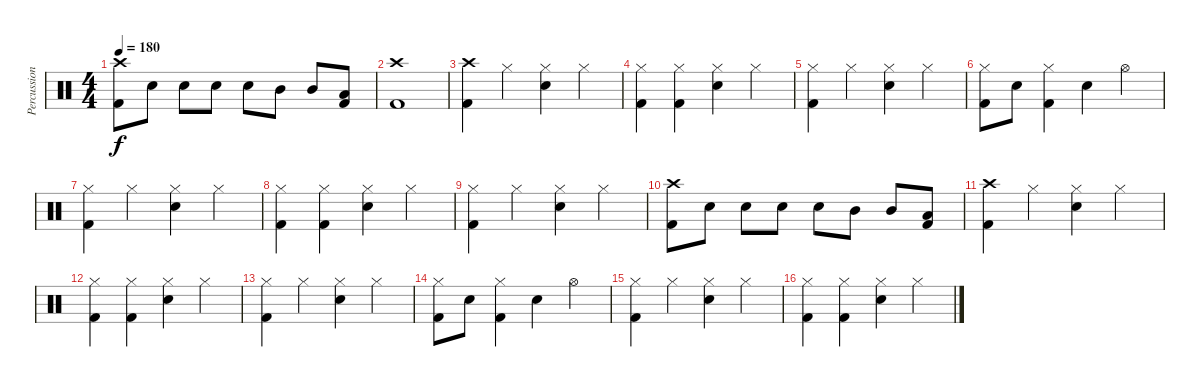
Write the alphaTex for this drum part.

\track ("Percussion" "Percussion") {instrument percussion}
\staff {score}
\articulation defaults
\ts (4 4)
\tempo 180
\clef neutral
\ks c
("Crash high (hit)" "Kick (hit) 2").8{dy f} "Snare (hit) 2".8 "Snare (hit) 2".8 "Snare (hit) 2".8 "Snare (hit) 2".8 "Mid Tom (hit)".8 "Mid Tom (hit)".8 ("Kick (hit) 2" "Low Tom (hit)").8 |
("Crash high (hit)" "Kick (hit) 2").1 |
("Crash high (hit)" "Kick (hit) 2").4 "Hi-Hat (closed)".4 ("Hi-Hat (closed)" "Snare (hit) 2").4 "Hi-Hat (closed)".4 |
("Hi-Hat (closed)" "Kick (hit) 2").4 ("Hi-Hat (closed)" "Kick (hit) 2").4 ("Hi-Hat (closed)" "Snare (hit) 2").4 "Hi-Hat (closed)".4 |
("Hi-Hat (closed)" "Kick (hit) 2").4 "Hi-Hat (closed)".4 ("Hi-Hat (closed)" "Snare (hit) 2").4 "Hi-Hat (closed)".4 |
("Hi-Hat (closed)" "Kick (hit) 2").8 "Snare (hit) 2".8 ("Hi-Hat (closed)" "Kick (hit) 2").4 "Snare (hit) 2".4 "Hi-Hat (open)".4 |
("Hi-Hat (closed)" "Kick (hit) 2").4 "Hi-Hat (closed)".4 ("Hi-Hat (closed)" "Snare (hit) 2").4 "Hi-Hat (closed)".4 |
("Hi-Hat (closed)" "Kick (hit) 2").4 ("Hi-Hat (closed)" "Kick (hit) 2").4 ("Hi-Hat (closed)" "Snare (hit) 2").4 "Hi-Hat (closed)".4 |
("Hi-Hat (closed)" "Kick (hit) 2").4 "Hi-Hat (closed)".4 ("Hi-Hat (closed)" "Snare (hit) 2").4 "Hi-Hat (closed)".4 |
("Crash high (hit)" "Kick (hit) 2").8 "Snare (hit) 2".8 "Snare (hit) 2".8 "Snare (hit) 2".8 "Snare (hit) 2".8 "Mid Tom (hit)".8 "Mid Tom (hit)".8 ("Kick (hit) 2" "Low Tom (hit)").8 |
("Crash high (hit)" "Kick (hit) 2").4 "Hi-Hat (closed)".4 ("Hi-Hat (closed)" "Snare (hit) 2").4 "Hi-Hat (closed)".4 |
("Hi-Hat (closed)" "Kick (hit) 2").4 ("Hi-Hat (closed)" "Kick (hit) 2").4 ("Hi-Hat (closed)" "Snare (hit) 2").4 "Hi-Hat (closed)".4 |
("Hi-Hat (closed)" "Kick (hit) 2").4 "Hi-Hat (closed)".4 ("Hi-Hat (closed)" "Snare (hit) 2").4 "Hi-Hat (closed)".4 |
("Hi-Hat (closed)" "Kick (hit) 2").8 "Snare (hit) 2".8 ("Hi-Hat (closed)" "Kick (hit) 2").4 "Snare (hit) 2".4 "Hi-Hat (open)".4 |
("Hi-Hat (closed)" "Kick (hit) 2").4 "Hi-Hat (closed)".4 ("Hi-Hat (closed)" "Snare (hit) 2").4 "Hi-Hat (closed)".4 |
("Hi-Hat (closed)" "Kick (hit) 2").4 ("Hi-Hat (closed)" "Kick (hit) 2").4 ("Hi-Hat (closed)" "Snare (hit) 2").4 "Hi-Hat (closed)".4
